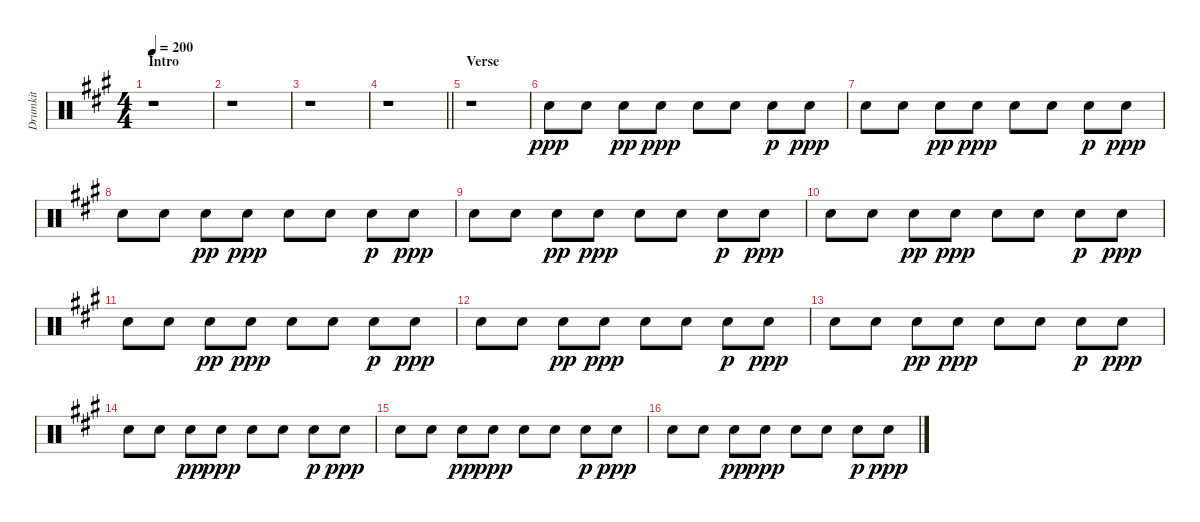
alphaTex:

\track ("Drumkit" "Drumkit") {instrument percussion}
\staff {score}
\articulation defaults
\ts (4 4)
\section ("" "Intro")
\tempo 200
\clef neutral
\ks a
r.1{dy ppp} |
r.1 |
r.1 |
\barLineRight lightlight
r.1 |
\section ("" "Verse")
r.1 |
"Snare (hit) 2".8 "Snare (hit) 2".8 "Snare (hit) 2".8{dy pp} "Snare (hit) 2".8{dy ppp} "Snare (hit) 2".8 "Snare (hit) 2".8 "Snare (hit) 2".8{dy p} "Snare (hit) 2".8{dy ppp} |
"Snare (hit) 2".8 "Snare (hit) 2".8 "Snare (hit) 2".8{dy pp} "Snare (hit) 2".8{dy ppp} "Snare (hit) 2".8 "Snare (hit) 2".8 "Snare (hit) 2".8{dy p} "Snare (hit) 2".8{dy ppp} |
"Snare (hit) 2".8 "Snare (hit) 2".8 "Snare (hit) 2".8{dy pp} "Snare (hit) 2".8{dy ppp} "Snare (hit) 2".8 "Snare (hit) 2".8 "Snare (hit) 2".8{dy p} "Snare (hit) 2".8{dy ppp} |
"Snare (hit) 2".8 "Snare (hit) 2".8 "Snare (hit) 2".8{dy pp} "Snare (hit) 2".8{dy ppp} "Snare (hit) 2".8 "Snare (hit) 2".8 "Snare (hit) 2".8{dy p} "Snare (hit) 2".8{dy ppp} |
"Snare (hit) 2".8 "Snare (hit) 2".8 "Snare (hit) 2".8{dy pp} "Snare (hit) 2".8{dy ppp} "Snare (hit) 2".8 "Snare (hit) 2".8 "Snare (hit) 2".8{dy p} "Snare (hit) 2".8{dy ppp} |
"Snare (hit) 2".8 "Snare (hit) 2".8 "Snare (hit) 2".8{dy pp} "Snare (hit) 2".8{dy ppp} "Snare (hit) 2".8 "Snare (hit) 2".8 "Snare (hit) 2".8{dy p} "Snare (hit) 2".8{dy ppp} |
"Snare (hit) 2".8 "Snare (hit) 2".8 "Snare (hit) 2".8{dy pp} "Snare (hit) 2".8{dy ppp} "Snare (hit) 2".8 "Snare (hit) 2".8 "Snare (hit) 2".8{dy p} "Snare (hit) 2".8{dy ppp} |
"Snare (hit) 2".8 "Snare (hit) 2".8 "Snare (hit) 2".8{dy pp} "Snare (hit) 2".8{dy ppp} "Snare (hit) 2".8 "Snare (hit) 2".8 "Snare (hit) 2".8{dy p} "Snare (hit) 2".8{dy ppp} |
"Snare (hit) 2".8 "Snare (hit) 2".8 "Snare (hit) 2".8{dy pp} "Snare (hit) 2".8{dy ppp} "Snare (hit) 2".8 "Snare (hit) 2".8 "Snare (hit) 2".8{dy p} "Snare (hit) 2".8{dy ppp} |
"Snare (hit) 2".8 "Snare (hit) 2".8 "Snare (hit) 2".8{dy pp} "Snare (hit) 2".8{dy ppp} "Snare (hit) 2".8 "Snare (hit) 2".8 "Snare (hit) 2".8{dy p} "Snare (hit) 2".8{dy ppp} |
"Snare (hit) 2".8 "Snare (hit) 2".8 "Snare (hit) 2".8{dy pp} "Snare (hit) 2".8{dy ppp} "Snare (hit) 2".8 "Snare (hit) 2".8 "Snare (hit) 2".8{dy p} "Snare (hit) 2".8{dy ppp}
